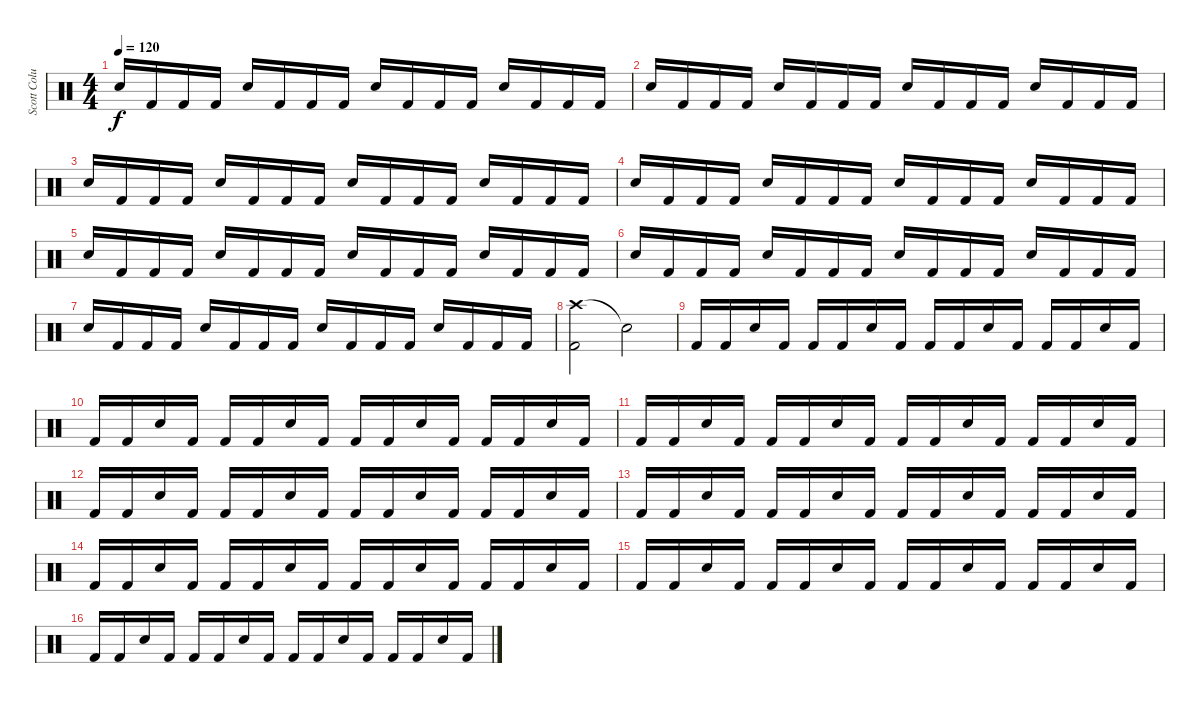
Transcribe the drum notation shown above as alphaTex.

\track ("Scott Columbus" "Scott Colu") {instrument percussion}
\staff {score}
\articulation defaults
\ts (4 4)
\tempo 120
\tempo 175
\tempo 180
\tempo 120
\clef neutral
\ks c "Snare (hit) 2".16{dy f} "Kick (hit) 2".16 "Kick (hit) 2".16 "Kick (hit) 2".16 "Snare (hit) 2".16 "Kick (hit) 2".16 "Kick (hit) 2".16 "Kick (hit) 2".16 "Snare (hit) 2".16 "Kick (hit) 2".16 "Kick (hit) 2".16 "Kick (hit) 2".16 "Snare (hit) 2".16 "Kick (hit) 2".16 "Kick (hit) 2".16 "Kick (hit) 2".16
|
"Snare (hit) 2".16 "Kick (hit) 2".16 "Kick (hit) 2".16 "Kick (hit) 2".16 "Snare (hit) 2".16 "Kick (hit) 2".16 "Kick (hit) 2".16 "Kick (hit) 2".16 "Snare (hit) 2".16 "Kick (hit) 2".16 "Kick (hit) 2".16 "Kick (hit) 2".16 "Snare (hit) 2".16 "Kick (hit) 2".16 "Kick (hit) 2".16 "Kick (hit) 2".16 |
"Snare (hit) 2".16 "Kick (hit) 2".16 "Kick (hit) 2".16 "Kick (hit) 2".16 "Snare (hit) 2".16 "Kick (hit) 2".16 "Kick (hit) 2".16 "Kick (hit) 2".16 "Snare (hit) 2".16 "Kick (hit) 2".16 "Kick (hit) 2".16 "Kick (hit) 2".16 "Snare (hit) 2".16 "Kick (hit) 2".16 "Kick (hit) 2".16 "Kick (hit) 2".16 |
"Snare (hit) 2".16 "Kick (hit) 2".16 "Kick (hit) 2".16 "Kick (hit) 2".16 "Snare (hit) 2".16 "Kick (hit) 2".16 "Kick (hit) 2".16 "Kick (hit) 2".16 "Snare (hit) 2".16 "Kick (hit) 2".16 "Kick (hit) 2".16 "Kick (hit) 2".16 "Snare (hit) 2".16 "Kick (hit) 2".16 "Kick (hit) 2".16 "Kick (hit) 2".16 |
"Snare (hit) 2".16 "Kick (hit) 2".16 "Kick (hit) 2".16 "Kick (hit) 2".16 "Snare (hit) 2".16 "Kick (hit) 2".16 "Kick (hit) 2".16 "Kick (hit) 2".16 "Snare (hit) 2".16 "Kick (hit) 2".16 "Kick (hit) 2".16 "Kick (hit) 2".16 "Snare (hit) 2".16 "Kick (hit) 2".16 "Kick (hit) 2".16 "Kick (hit) 2".16 |
"Snare (hit) 2".16 "Kick (hit) 2".16 "Kick (hit) 2".16 "Kick (hit) 2".16 "Snare (hit) 2".16 "Kick (hit) 2".16 "Kick (hit) 2".16 "Kick (hit) 2".16 "Snare (hit) 2".16 "Kick (hit) 2".16 "Kick (hit) 2".16 "Kick (hit) 2".16 "Snare (hit) 2".16 "Kick (hit) 2".16 "Kick (hit) 2".16 "Kick (hit) 2".16 |
"Snare (hit) 2".16 "Kick (hit) 2".16 "Kick (hit) 2".16 "Kick (hit) 2".16 "Snare (hit) 2".16 "Kick (hit) 2".16 "Kick (hit) 2".16 "Kick (hit) 2".16 "Snare (hit) 2".16 "Kick (hit) 2".16 "Kick (hit) 2".16 "Kick (hit) 2".16 "Snare (hit) 2".16 "Kick (hit) 2".16 "Kick (hit) 2".16 "Kick (hit) 2".16 |
("Crash high (hit)" "Kick (hit) 2").2 "Snare (hit)"{t}.2 |
"Kick (hit) 2".16 "Kick (hit) 2".16 "Snare (hit) 2".16 "Kick (hit) 2".16 "Kick (hit) 2".16 "Kick (hit) 2".16 "Snare (hit) 2".16 "Kick (hit) 2".16 "Kick (hit) 2".16 "Kick (hit) 2".16 "Snare (hit) 2".16 "Kick (hit) 2".16 "Kick (hit) 2".16 "Kick (hit) 2".16 "Snare (hit) 2".16 "Kick (hit) 2".16 |
"Kick (hit) 2".16 "Kick (hit) 2".16 "Snare (hit) 2".16 "Kick (hit) 2".16 "Kick (hit) 2".16 "Kick (hit) 2".16 "Snare (hit) 2".16 "Kick (hit) 2".16 "Kick (hit) 2".16 "Kick (hit) 2".16 "Snare (hit) 2".16 "Kick (hit) 2".16 "Kick (hit) 2".16 "Kick (hit) 2".16 "Snare (hit) 2".16 "Kick (hit) 2".16 |
"Kick (hit) 2".16 "Kick (hit) 2".16 "Snare (hit) 2".16 "Kick (hit) 2".16 "Kick (hit) 2".16 "Kick (hit) 2".16 "Snare (hit) 2".16 "Kick (hit) 2".16 "Kick (hit) 2".16 "Kick (hit) 2".16 "Snare (hit) 2".16 "Kick (hit) 2".16 "Kick (hit) 2".16 "Kick (hit) 2".16 "Snare (hit) 2".16 "Kick (hit) 2".16 |
"Kick (hit) 2".16 "Kick (hit) 2".16 "Snare (hit) 2".16 "Kick (hit) 2".16 "Kick (hit) 2".16 "Kick (hit) 2".16 "Snare (hit) 2".16 "Kick (hit) 2".16 "Kick (hit) 2".16 "Kick (hit) 2".16 "Snare (hit) 2".16 "Kick (hit) 2".16 "Kick (hit) 2".16 "Kick (hit) 2".16 "Snare (hit) 2".16 "Kick (hit) 2".16 |
"Kick (hit) 2".16 "Kick (hit) 2".16 "Snare (hit) 2".16 "Kick (hit) 2".16 "Kick (hit) 2".16 "Kick (hit) 2".16 "Snare (hit) 2".16 "Kick (hit) 2".16 "Kick (hit) 2".16 "Kick (hit) 2".16 "Snare (hit) 2".16 "Kick (hit) 2".16 "Kick (hit) 2".16 "Kick (hit) 2".16 "Snare (hit) 2".16 "Kick (hit) 2".16 |
"Kick (hit) 2".16 "Kick (hit) 2".16 "Snare (hit) 2".16 "Kick (hit) 2".16 "Kick (hit) 2".16 "Kick (hit) 2".16 "Snare (hit) 2".16 "Kick (hit) 2".16 "Kick (hit) 2".16 "Kick (hit) 2".16 "Snare (hit) 2".16 "Kick (hit) 2".16 "Kick (hit) 2".16 "Kick (hit) 2".16 "Snare (hit) 2".16 "Kick (hit) 2".16 |
"Kick (hit) 2".16 "Kick (hit) 2".16 "Snare (hit) 2".16 "Kick (hit) 2".16 "Kick (hit) 2".16 "Kick (hit) 2".16 "Snare (hit) 2".16 "Kick (hit) 2".16 "Kick (hit) 2".16 "Kick (hit) 2".16 "Snare (hit) 2".16 "Kick (hit) 2".16 "Kick (hit) 2".16 "Kick (hit) 2".16 "Snare (hit) 2".16 "Kick (hit) 2".16 |
"Kick (hit) 2".16 "Kick (hit) 2".16 "Snare (hit) 2".16 "Kick (hit) 2".16 "Kick (hit) 2".16 "Kick (hit) 2".16 "Snare (hit) 2".16 "Kick (hit) 2".16 "Kick (hit) 2".16 "Kick (hit) 2".16 "Snare (hit) 2".16 "Kick (hit) 2".16 "Kick (hit) 2".16 "Kick (hit) 2".16 "Snare (hit) 2".16 "Kick (hit) 2".16
